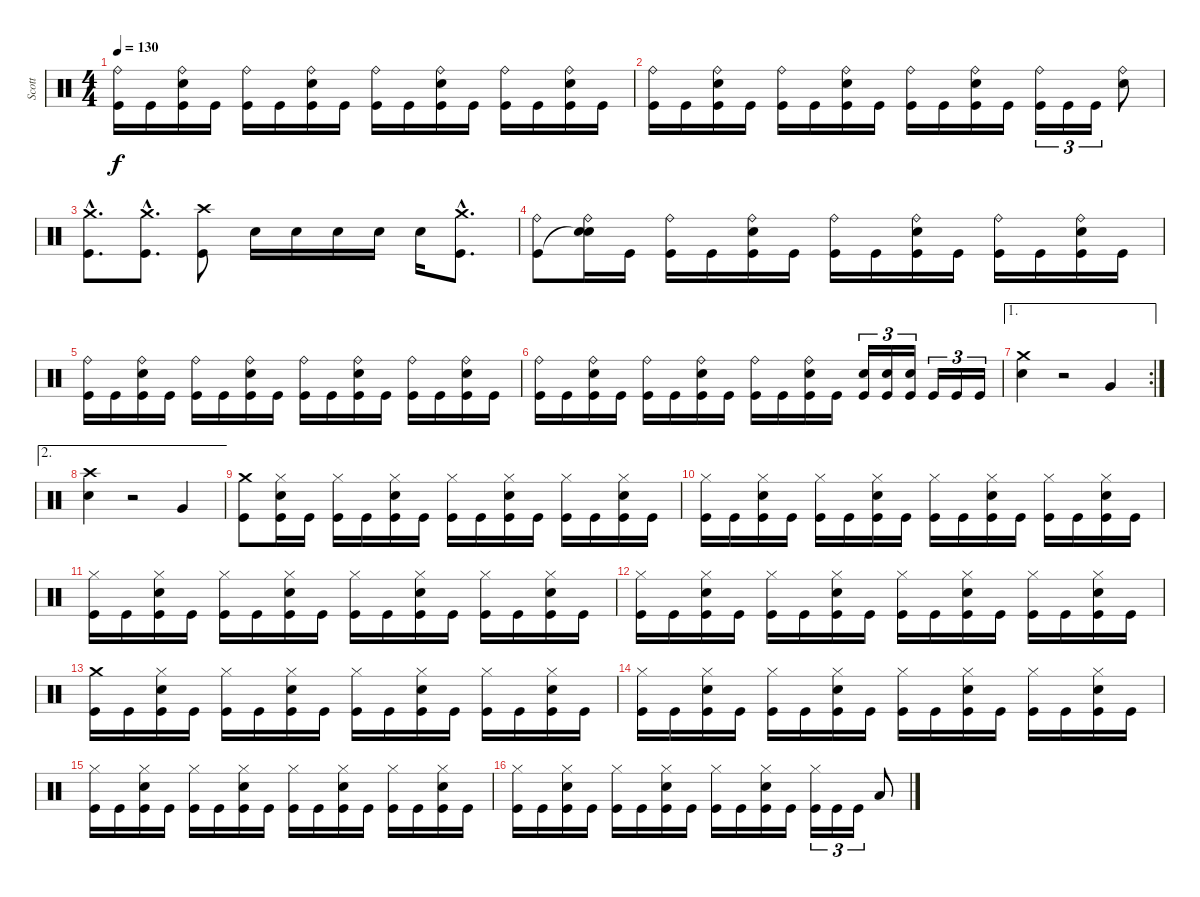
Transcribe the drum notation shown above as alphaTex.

\track ("Scott" "Scott") {instrument percussion}
\staff {score}
\articulation defaults
\ts (4 4)
\tempo 130
\clef neutral
\ks c
("Kick (hit)" "Ride (bell)").16{dy f} "Kick (hit)".16 ("Kick (hit)" "Snare (hit) 2" "Ride (bell)").16 "Kick (hit)".16 ("Kick (hit)" "Ride (bell)").16 "Kick (hit)".16 ("Kick (hit)" "Snare (hit) 2" "Ride (bell)").16 "Kick (hit)".16 ("Kick (hit)" "Ride (bell)").16 "Kick (hit)".16 ("Kick (hit)" "Snare (hit) 2" "Ride (bell)").16 "Kick (hit)".16 ("Kick (hit)" "Ride (bell)").16 "Kick (hit)".16 ("Kick (hit)" "Snare (hit) 2" "Ride (bell)").16 "Kick (hit)".16 |
("Kick (hit)" "Ride (bell)").16 "Kick (hit)".16 ("Kick (hit)" "Snare (hit) 2" "Ride (bell)").16 "Kick (hit)".16 ("Kick (hit)" "Ride (bell)").16 "Kick (hit)".16 ("Kick (hit)" "Snare (hit) 2" "Ride (bell)").16 "Kick (hit)".16 ("Kick (hit)" "Ride (bell)").16 "Kick (hit)".16 ("Kick (hit)" "Snare (hit) 2" "Ride (bell)").16 "Kick (hit)".16 ("Kick (hit)" "Ride (bell)").16{tu (3 2)} "Kick (hit)".16{tu (3 2)} "Kick (hit)".16{tu (3 2)} ("Snare (hit) 2" "Ride (bell)").8 |
("Kick (hit)"{hac} "Crash medium (hit)"{hac}).8{d} ("Kick (hit)"{hac} "Crash medium (hit)"{hac}).8{d} ("Kick (hit)" "Crash high (hit)").8 "Snare (hit) 2".16 "Snare (hit) 2".16 "Snare (hit) 2".16 "Snare (hit) 2".16 "Snare (hit) 2".16 ("Kick (hit)"{hac} "Crash medium (hit)"{hac}).8{d} |
("Kick (hit)" "Ride (bell)").8 ("Snare (hit)"{t} "Snare (hit) 2" "Ride (bell)").16 "Kick (hit)".16 ("Kick (hit)" "Ride (bell)").16 "Kick (hit)".16 ("Kick (hit)" "Snare (hit) 2" "Ride (bell)").16 "Kick (hit)".16 ("Kick (hit)" "Ride (bell)").16 "Kick (hit)".16 ("Kick (hit)" "Snare (hit) 2" "Ride (bell)").16 "Kick (hit)".16 ("Kick (hit)" "Ride (bell)").16 "Kick (hit)".16 ("Kick (hit)" "Snare (hit) 2" "Ride (bell)").16 "Kick (hit)".16 |
("Kick (hit)" "Ride (bell)").16 "Kick (hit)".16 ("Kick (hit)" "Snare (hit) 2" "Ride (bell)").16 "Kick (hit)".16 ("Kick (hit)" "Ride (bell)").16 "Kick (hit)".16 ("Kick (hit)" "Snare (hit) 2" "Ride (bell)").16 "Kick (hit)".16 ("Kick (hit)" "Ride (bell)").16 "Kick (hit)".16 ("Kick (hit)" "Snare (hit) 2" "Ride (bell)").16 "Kick (hit)".16 ("Kick (hit)" "Ride (bell)").16 "Kick (hit)".16 ("Kick (hit)" "Snare (hit) 2" "Ride (bell)").16 "Kick (hit)".16 |
("Kick (hit)" "Ride (bell)").16 "Kick (hit)".16 ("Kick (hit)" "Snare (hit) 2" "Ride (bell)").16 "Kick (hit)".16 ("Kick (hit)" "Ride (bell)").16 "Kick (hit)".16 ("Kick (hit)" "Snare (hit) 2" "Ride (bell)").16 "Kick (hit)".16 ("Kick (hit)" "Ride (bell)").16 "Kick (hit)".16 ("Kick (hit)" "Snare (hit) 2" "Ride (bell)").16 "Kick (hit)".16 ("Kick (hit)" "Snare (hit) 2").16{tu (3 2)} ("Kick (hit)" "Snare (hit) 2").16{tu (3 2)} ("Kick (hit)" "Snare (hit) 2").16{tu (3 2)} "Kick (hit)".16{tu (3 2)} "Kick (hit)".16{tu (3 2)} "Kick (hit)".16{tu (3 2)} |
\ae 1
\rc 2
("Snare (hit) 2" "Crash medium (hit)").4 r.2 "Very Low Tom (hit)".4 |
\ae 2
("Snare (hit) 2" "Crash high (hit)").4 r.2 "Very Low Tom (hit)".4 |
("Kick (hit)" "Crash medium (hit)").8 ("Kick (hit)" "Snare (hit) 2" "Hi-Hat (closed)").16 "Kick (hit)".16 ("Kick (hit)" "Hi-Hat (closed)").16 "Kick (hit)".16 ("Kick (hit)" "Snare (hit) 2" "Hi-Hat (closed)").16 "Kick (hit)".16 ("Kick (hit)" "Hi-Hat (closed)").16 "Kick (hit)".16 ("Kick (hit)" "Snare (hit) 2" "Hi-Hat (closed)").16 "Kick (hit)".16 ("Kick (hit)" "Hi-Hat (closed)").16 "Kick (hit)".16 ("Kick (hit)" "Snare (hit) 2" "Hi-Hat (closed)").16 "Kick (hit)".16 |
("Kick (hit)" "Hi-Hat (closed)").16 "Kick (hit)".16 ("Kick (hit)" "Snare (hit) 2" "Hi-Hat (closed)").16 "Kick (hit)".16 ("Kick (hit)" "Hi-Hat (closed)").16 "Kick (hit)".16 ("Kick (hit)" "Snare (hit) 2" "Hi-Hat (closed)").16 "Kick (hit)".16 ("Kick (hit)" "Hi-Hat (closed)").16 "Kick (hit)".16 ("Kick (hit)" "Snare (hit) 2" "Hi-Hat (closed)").16 "Kick (hit)".16 ("Kick (hit)" "Hi-Hat (closed)").16 "Kick (hit)".16 ("Kick (hit)" "Snare (hit) 2" "Hi-Hat (closed)").16 "Kick (hit)".16 |
("Kick (hit)" "Hi-Hat (closed)").16 "Kick (hit)".16 ("Kick (hit)" "Snare (hit) 2" "Hi-Hat (closed)").16 "Kick (hit)".16 ("Kick (hit)" "Hi-Hat (closed)").16 "Kick (hit)".16 ("Kick (hit)" "Snare (hit) 2" "Hi-Hat (closed)").16 "Kick (hit)".16 ("Kick (hit)" "Hi-Hat (closed)").16 "Kick (hit)".16 ("Kick (hit)" "Snare (hit) 2" "Hi-Hat (closed)").16 "Kick (hit)".16 ("Kick (hit)" "Hi-Hat (closed)").16 "Kick (hit)".16 ("Kick (hit)" "Snare (hit) 2" "Hi-Hat (closed)").16 "Kick (hit)".16 |
("Kick (hit)" "Hi-Hat (closed)").16 "Kick (hit)".16 ("Kick (hit)" "Snare (hit) 2" "Hi-Hat (closed)").16 "Kick (hit)".16 ("Kick (hit)" "Hi-Hat (closed)").16 "Kick (hit)".16 ("Kick (hit)" "Snare (hit) 2" "Hi-Hat (closed)").16 "Kick (hit)".16 ("Kick (hit)" "Hi-Hat (closed)").16 "Kick (hit)".16 ("Kick (hit)" "Snare (hit) 2" "Hi-Hat (closed)").16 "Kick (hit)".16 ("Kick (hit)" "Hi-Hat (closed)").16 "Kick (hit)".16 ("Kick (hit)" "Snare (hit) 2" "Hi-Hat (closed)").16 "Kick (hit)".16 |
("Kick (hit)" "Crash medium (hit)").16 "Kick (hit)".16 ("Kick (hit)" "Snare (hit) 2" "Hi-Hat (closed)").16 "Kick (hit)".16 ("Kick (hit)" "Hi-Hat (closed)").16 "Kick (hit)".16 ("Kick (hit)" "Snare (hit) 2" "Hi-Hat (closed)").16 "Kick (hit)".16 ("Kick (hit)" "Hi-Hat (closed)").16 "Kick (hit)".16 ("Kick (hit)" "Snare (hit) 2" "Hi-Hat (closed)").16 "Kick (hit)".16 ("Kick (hit)" "Hi-Hat (closed)").16 "Kick (hit)".16 ("Kick (hit)" "Snare (hit) 2" "Hi-Hat (closed)").16 "Kick (hit)".16 |
("Kick (hit)" "Hi-Hat (closed)").16 "Kick (hit)".16 ("Kick (hit)" "Snare (hit) 2" "Hi-Hat (closed)").16 "Kick (hit)".16 ("Kick (hit)" "Hi-Hat (closed)").16 "Kick (hit)".16 ("Kick (hit)" "Snare (hit) 2" "Hi-Hat (closed)").16 "Kick (hit)".16 ("Kick (hit)" "Hi-Hat (closed)").16 "Kick (hit)".16 ("Kick (hit)" "Snare (hit) 2" "Hi-Hat (closed)").16 "Kick (hit)".16 ("Kick (hit)" "Hi-Hat (closed)").16 "Kick (hit)".16 ("Kick (hit)" "Snare (hit) 2" "Hi-Hat (closed)").16 "Kick (hit)".16 |
("Kick (hit)" "Hi-Hat (closed)").16 "Kick (hit)".16 ("Kick (hit)" "Snare (hit) 2" "Hi-Hat (closed)").16 "Kick (hit)".16 ("Kick (hit)" "Hi-Hat (closed)").16 "Kick (hit)".16 ("Kick (hit)" "Snare (hit) 2" "Hi-Hat (closed)").16 "Kick (hit)".16 ("Kick (hit)" "Hi-Hat (closed)").16 "Kick (hit)".16 ("Kick (hit)" "Snare (hit) 2" "Hi-Hat (closed)").16 "Kick (hit)".16 ("Kick (hit)" "Hi-Hat (closed)").16 "Kick (hit)".16 ("Kick (hit)" "Snare (hit) 2" "Hi-Hat (closed)").16 "Kick (hit)".16 |
("Kick (hit)" "Hi-Hat (closed)").16 "Kick (hit)".16 ("Kick (hit)" "Snare (hit) 2" "Hi-Hat (closed)").16 "Kick (hit)".16 ("Kick (hit)" "Hi-Hat (closed)").16 "Kick (hit)".16 ("Kick (hit)" "Snare (hit) 2" "Hi-Hat (closed)").16 "Kick (hit)".16 ("Kick (hit)" "Hi-Hat (closed)").16 "Kick (hit)".16 ("Kick (hit)" "Snare (hit) 2" "Hi-Hat (closed)").16 "Kick (hit)".16 ("Kick (hit)" "Hi-Hat (closed)").16{tu (3 2)} "Kick (hit)".16{tu (3 2)} "Kick (hit)".16{tu (3 2)} "Low Tom (hit)".8
